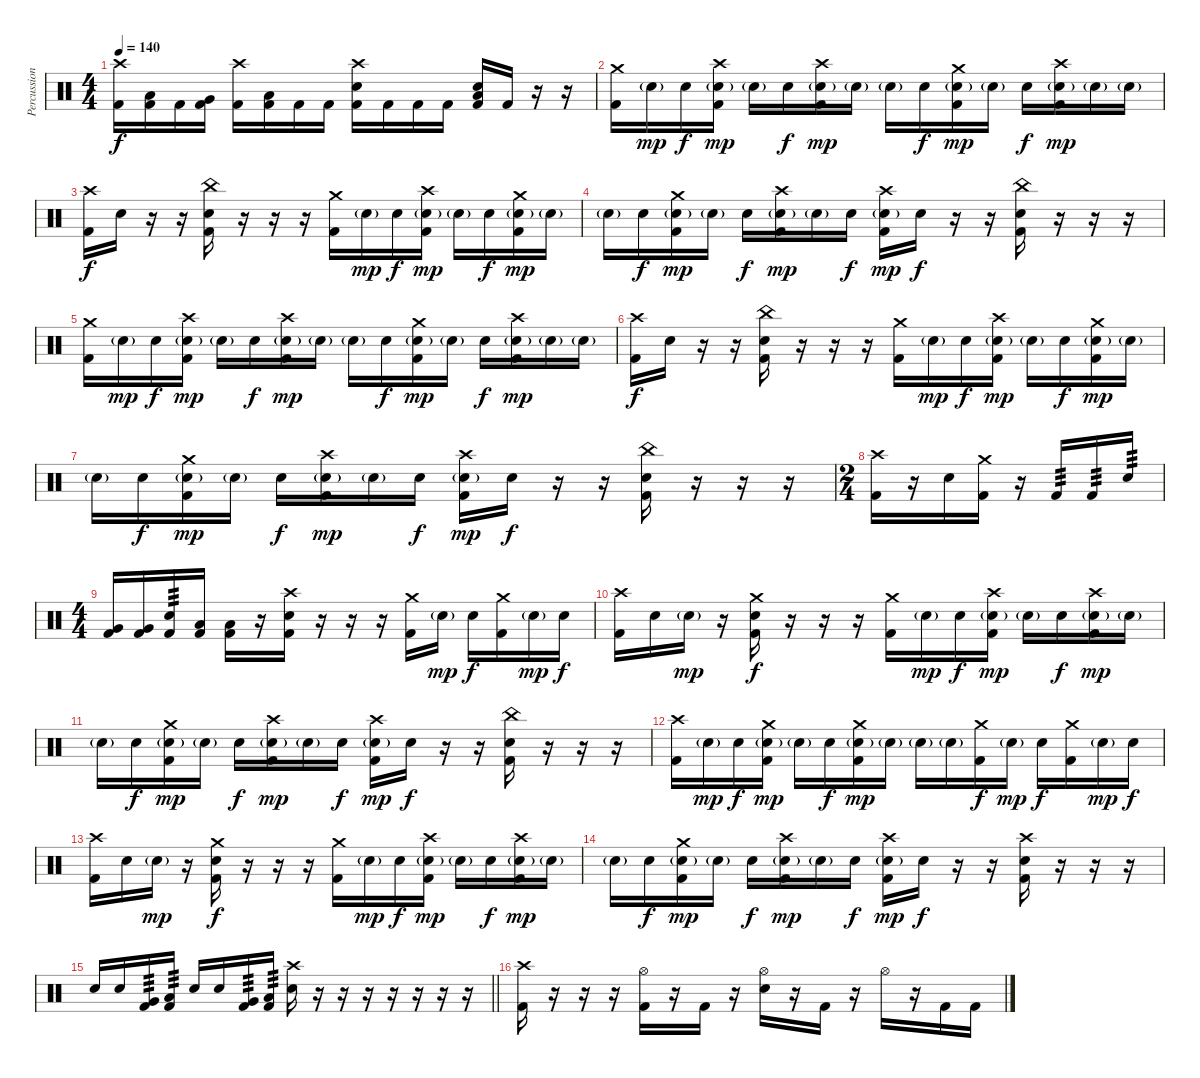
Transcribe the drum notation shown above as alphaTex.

\track ("Percussion" "Percussion") {instrument percussion}
\staff {score}
\articulation defaults
\ts (4 4)
\tempo 140
\clef neutral
\ks c
("Crash high (hit)" "Kick (hit) 2").16{dy f} ("Low Tom (hit)" "Kick (hit) 2").16 "Kick (hit) 2".16 ("Very Low Tom (hit)" "Kick (hit) 2").16 ("Crash high (hit)" "Kick (hit) 2").16 ("Low Floor Tom (hit)" "Kick (hit) 2").16 "Kick (hit) 2".16 "Kick (hit) 2".16 ("Crash high (hit)" "Snare (hit) 2" "Kick (hit) 2").16 "Kick (hit) 2".16 "Kick (hit) 2".16 "Kick (hit) 2".16 ("Low Floor Tom (hit)" "Snare (hit) 2" "Kick (hit) 2").16 "Kick (hit) 2".16 r.16 r.16 |
("Crash medium (hit)" "Kick (hit) 2").16 "Snare (hit) 2"{g}.16{dy mp} "Snare (hit) 2".16{dy f} ("Crash high (hit)" "Snare (hit) 2"{g} "Kick (hit) 2").16{dy mp} "Snare (hit) 2"{g}.16 "Snare (hit) 2".16{dy f} ("Crash high (hit)" "Snare (hit) 2"{g} "Kick (hit) 2").16{dy mp} "Snare (hit) 2"{g}.16 "Snare (hit) 2"{g}.16 "Snare (hit) 2".16{dy f} ("Crash medium (hit)" "Snare (hit) 2"{g} "Kick (hit) 2").16{dy mp} "Snare (hit) 2"{g}.16 "Snare (hit) 2".16{dy f} ("Crash high (hit)" "Snare (hit) 2"{g} "Kick (hit) 2").16{dy mp} "Snare (hit) 2"{g}.16 "Snare (hit) 2"{g}.16 |
("Crash high (hit)" "Kick (hit) 2").16{dy f} "Snare (hit) 2".16 r.16 r.16 ("China (hit)" "Snare (hit) 2" "Kick (hit) 2").16 r.16 r.16 r.16 ("Crash medium (hit)" "Kick (hit) 2").16 "Snare (hit) 2"{g}.16{dy mp} "Snare (hit) 2".16{dy f} ("Crash high (hit)" "Snare (hit) 2"{g} "Kick (hit) 2").16{dy mp} "Snare (hit) 2"{g}.16 "Snare (hit) 2".16{dy f} ("Crash medium (hit)" "Snare (hit) 2"{g} "Kick (hit) 2").16{dy mp} "Snare (hit) 2"{g}.16 |
"Snare (hit) 2"{g}.16 "Snare (hit) 2".16{dy f} ("Crash medium (hit)" "Snare (hit) 2"{g} "Kick (hit) 2").16{dy mp} "Snare (hit) 2"{g}.16 "Snare (hit) 2".16{dy f} ("Crash high (hit)" "Snare (hit) 2"{g} "Kick (hit) 2").16{dy mp} "Snare (hit) 2"{g}.16 "Snare (hit) 2".16{dy f} ("Crash high (hit)" "Snare (hit) 2"{g} "Kick (hit) 2").16{dy mp} "Snare (hit) 2".16{dy f} r.16 r.16 ("China (hit)" "Snare (hit) 2" "Kick (hit) 2").16 r.16 r.16 r.16 |
("Crash medium (hit)" "Kick (hit) 2").16 "Snare (hit) 2"{g}.16{dy mp} "Snare (hit) 2".16{dy f} ("Crash high (hit)" "Snare (hit) 2"{g} "Kick (hit) 2").16{dy mp} "Snare (hit) 2"{g}.16 "Snare (hit) 2".16{dy f} ("Crash high (hit)" "Snare (hit) 2"{g} "Kick (hit) 2").16{dy mp} "Snare (hit) 2"{g}.16 "Snare (hit) 2"{g}.16 "Snare (hit) 2".16{dy f} ("Crash medium (hit)" "Snare (hit) 2"{g} "Kick (hit) 2").16{dy mp} "Snare (hit) 2"{g}.16 "Snare (hit) 2".16{dy f} ("Crash high (hit)" "Snare (hit) 2"{g} "Kick (hit) 2").16{dy mp} "Snare (hit) 2"{g}.16 "Snare (hit) 2"{g}.16 |
("Crash high (hit)" "Kick (hit) 2").16{dy f} "Snare (hit) 2".16 r.16 r.16 ("China (hit)" "Snare (hit) 2" "Kick (hit) 2").16 r.16 r.16 r.16 ("Crash medium (hit)" "Kick (hit) 2").16 "Snare (hit) 2"{g}.16{dy mp} "Snare (hit) 2".16{dy f} ("Crash high (hit)" "Snare (hit) 2"{g} "Kick (hit) 2").16{dy mp} "Snare (hit) 2"{g}.16 "Snare (hit) 2".16{dy f} ("Crash medium (hit)" "Snare (hit) 2"{g} "Kick (hit) 2").16{dy mp} "Snare (hit) 2"{g}.16 |
"Snare (hit) 2"{g}.16 "Snare (hit) 2".16{dy f} ("Crash medium (hit)" "Snare (hit) 2"{g} "Kick (hit) 2").16{dy mp} "Snare (hit) 2"{g}.16 "Snare (hit) 2".16{dy f} ("Crash high (hit)" "Snare (hit) 2"{g} "Kick (hit) 2").16{dy mp} "Snare (hit) 2"{g}.16 "Snare (hit) 2".16{dy f} ("Crash high (hit)" "Snare (hit) 2"{g} "Kick (hit) 2").16{dy mp} "Snare (hit) 2".16{dy f} r.16 r.16 ("China (hit)" "Snare (hit) 2" "Kick (hit) 2").16 r.16 r.16 r.16 |
\ts (2 4)
("Crash high (hit)" "Kick (hit) 2").16 r.16 "Snare (hit) 2".16 ("Crash medium (hit)" "Kick (hit) 2").16 r.16 "Kick (hit) 2".16{tp 3} "Kick (hit) 2".16{tp 3} "Snare (hit) 2".16{tp 3} |
\ts (4 4)
("Very Low Tom (hit)" "Kick (hit) 2").16 ("Very Low Tom (hit)" "Kick (hit) 2").16 ("Snare (hit) 2" "Kick (hit) 2").16{tp 3} ("Low Floor Tom (hit)" "Kick (hit) 2").16 ("Low Floor Tom (hit)" "Kick (hit) 2").16 r.16 ("Crash high (hit)" "Snare (hit) 2" "Kick (hit) 2").16 r.16 r.16 r.16 ("Crash medium (hit)" "Kick (hit) 2").16 "Snare (hit) 2"{g}.16{dy mp} "Snare (hit) 2".16{dy f} ("Crash medium (hit)" "Kick (hit) 2").16 "Snare (hit) 2"{g}.16{dy mp} "Snare (hit) 2".16{dy f} |
("Crash high (hit)" "Kick (hit) 2").16 "Snare (hit) 2".16 "Snare (hit) 2"{g}.16{dy mp} r.16 ("Crash medium (hit)" "Snare (hit) 2" "Kick (hit) 2").16{dy f} r.16 r.16 r.16 ("Crash medium (hit)" "Kick (hit) 2").16 "Snare (hit) 2"{g}.16{dy mp} "Snare (hit) 2".16{dy f} ("Crash high (hit)" "Snare (hit) 2"{g} "Kick (hit) 2").16{dy mp} "Snare (hit) 2"{g}.16 "Snare (hit) 2".16{dy f} ("Crash high (hit)" "Snare (hit) 2"{g} "Kick (hit) 2").16{dy mp} "Snare (hit) 2"{g}.16 |
"Snare (hit) 2"{g}.16 "Snare (hit) 2".16{dy f} ("Crash medium (hit)" "Snare (hit) 2"{g} "Kick (hit) 2").16{dy mp} "Snare (hit) 2"{g}.16 "Snare (hit) 2".16{dy f} ("Crash high (hit)" "Snare (hit) 2"{g} "Kick (hit) 2").16{dy mp} "Snare (hit) 2"{g}.16 "Snare (hit) 2".16{dy f} ("Crash high (hit)" "Snare (hit) 2"{g} "Kick (hit) 2").16{dy mp} "Snare (hit) 2".16{dy f} r.16 r.16 ("China (hit)" "Snare (hit) 2" "Kick (hit) 2").16 r.16 r.16 r.16 |
("Crash high (hit)" "Kick (hit) 2").16 "Snare (hit) 2"{g}.16{dy mp} "Snare (hit) 2".16{dy f} ("Crash medium (hit)" "Snare (hit) 2"{g} "Kick (hit) 2").16{dy mp} "Snare (hit) 2"{g}.16 "Snare (hit) 2".16{dy f} ("Crash medium (hit)" "Snare (hit) 2"{g} "Kick (hit) 2").16{dy mp} "Snare (hit) 2"{g}.16 "Snare (hit) 2"{g}.16 "Snare (hit) 2"{g}.16 ("Crash medium (hit)" "Kick (hit) 2").16{dy f} "Snare (hit) 2"{g}.16{dy mp} "Snare (hit) 2".16{dy f} ("Crash medium (hit)" "Kick (hit) 2").16 "Snare (hit) 2"{g}.16{dy mp} "Snare (hit) 2".16{dy f} |
("Crash high (hit)" "Kick (hit) 2").16 "Snare (hit) 2".16 "Snare (hit) 2"{g}.16{dy mp} r.16 ("Crash medium (hit)" "Snare (hit) 2" "Kick (hit) 2").16{dy f} r.16 r.16 r.16 ("Crash medium (hit)" "Kick (hit) 2").16 "Snare (hit) 2"{g}.16{dy mp} "Snare (hit) 2".16{dy f} ("Crash high (hit)" "Snare (hit) 2"{g} "Kick (hit) 2").16{dy mp} "Snare (hit) 2"{g}.16 "Snare (hit) 2".16{dy f} ("Crash high (hit)" "Snare (hit) 2"{g} "Kick (hit) 2").16{dy mp} "Snare (hit) 2"{g}.16 |
"Snare (hit) 2"{g}.16 "Snare (hit) 2".16{dy f} ("Crash medium (hit)" "Snare (hit) 2"{g} "Kick (hit) 2").16{dy mp} "Snare (hit) 2"{g}.16 "Snare (hit) 2".16{dy f} ("Crash high (hit)" "Snare (hit) 2"{g} "Kick (hit) 2").16{dy mp} "Snare (hit) 2"{g}.16 "Snare (hit) 2".16{dy f} ("Crash high (hit)" "Snare (hit) 2"{g} "Kick (hit) 2").16{dy mp} "Snare (hit) 2".16{dy f} r.16 r.16 ("Crash high (hit)" "Snare (hit) 2" "Kick (hit) 2").16 r.16 r.16 r.16 |
\barLineRight lightlight "Snare (hit) 2".16 "Snare (hit) 2".16
("Very Low Tom (hit)" "Kick (hit) 2").16{tp 3} ("Low Floor Tom (hit)" "Kick (hit) 2").16{tp 3} "Snare (hit) 2".16 "Snare (hit) 2".16 ("Very Low Tom (hit)" "Kick (hit) 2").16{tp 3} ("Low Floor Tom (hit)" "Kick (hit) 2").16{tp 3} ("Crash high (hit)" "Snare (hit) 2").16 r.16 r.16 r.16 r.16 r.16 r.16 r.16 |
("Crash high (hit)" "Kick (hit) 2").16 r.16 r.16 r.16 ("Hi-Hat (open)" "Kick (hit) 2").16 r.16 "Kick (hit) 2".16 r.16 ("Hi-Hat (open)" "Snare (hit) 2").16 r.16 "Kick (hit) 2".16 r.16 "Hi-Hat (open)".16 r.16 "Kick (hit) 2".16 "Kick (hit) 2".16
